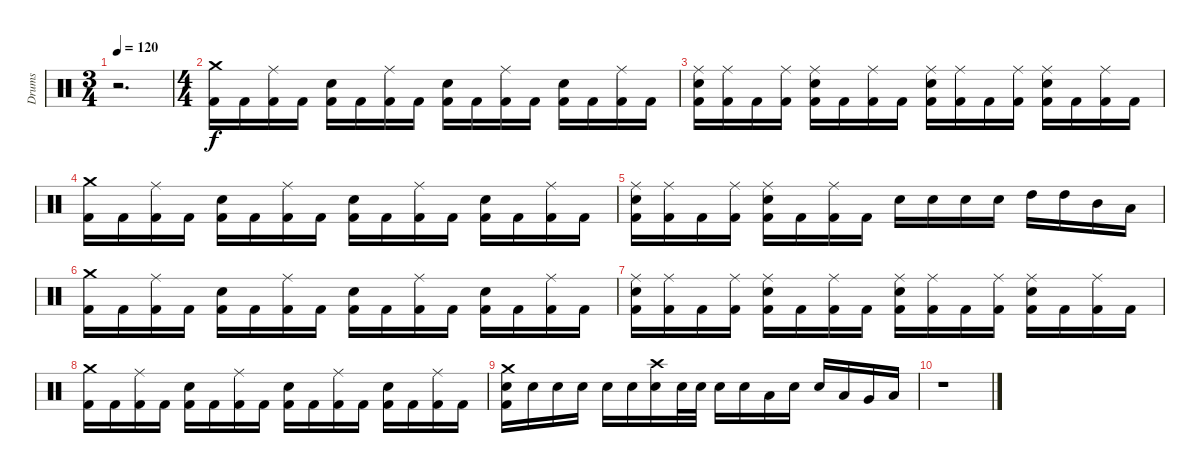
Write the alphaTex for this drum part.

\track ("Drums" "Drums") {instrument percussion}
\staff {score}
\articulation defaults
\ts (3 4)
\tempo 120
\clef neutral
\ks c
r.2{d dy f} |
\ts (4 4)
("Crash medium (hit)" "Kick (hit) 2").16 "Kick (hit) 2".16 ("Ride (middle)" "Kick (hit) 2").16 "Kick (hit) 2".16 ("Electric Snare (hit)" "Kick (hit) 2").16 "Kick (hit) 2".16 ("Ride (middle)" "Kick (hit) 2").16 "Kick (hit) 2".16 ("Electric Snare (hit)" "Kick (hit) 2").16 "Kick (hit) 2".16 ("Ride (middle)" "Kick (hit) 2").16 "Kick (hit) 2".16 ("Electric Snare (hit)" "Kick (hit) 2").16 "Kick (hit) 2".16 ("Ride (middle)" "Kick (hit) 2").16 "Kick (hit) 2".16 |
("Ride (middle)" "Electric Snare (hit)" "Kick (hit) 2").16 ("Ride (middle)" "Kick (hit) 2").16 "Kick (hit) 2".16 ("Ride (middle)" "Kick (hit) 2").16 ("Ride (middle)" "Electric Snare (hit)" "Kick (hit) 2").16 "Kick (hit) 2".16 ("Ride (middle)" "Kick (hit) 2").16 "Kick (hit) 2".16 ("Ride (middle)" "Electric Snare (hit)" "Kick (hit) 2").16 ("Ride (middle)" "Kick (hit) 2").16 "Kick (hit) 2".16 ("Ride (middle)" "Kick (hit) 2").16 ("Ride (middle)" "Electric Snare (hit)" "Kick (hit) 2").16 "Kick (hit) 2".16 ("Ride (middle)" "Kick (hit) 2").16 "Kick (hit) 2".16 |
("Crash medium (hit)" "Kick (hit) 2").16 "Kick (hit) 2".16 ("Ride (middle)" "Kick (hit) 2").16 "Kick (hit) 2".16 ("Electric Snare (hit)" "Kick (hit) 2").16 "Kick (hit) 2".16 ("Ride (middle)" "Kick (hit) 2").16 "Kick (hit) 2".16 ("Electric Snare (hit)" "Kick (hit) 2").16 "Kick (hit) 2".16 ("Ride (middle)" "Kick (hit) 2").16 "Kick (hit) 2".16 ("Electric Snare (hit)" "Kick (hit) 2").16 "Kick (hit) 2".16 ("Ride (middle)" "Kick (hit) 2").16 "Kick (hit) 2".16 |
("Ride (middle)" "Electric Snare (hit)" "Kick (hit) 2").16 ("Ride (middle)" "Kick (hit) 2").16 "Kick (hit) 2".16 ("Ride (middle)" "Kick (hit) 2").16 ("Ride (middle)" "Electric Snare (hit)" "Kick (hit) 2").16 "Kick (hit) 2".16 ("Ride (middle)" "Kick (hit) 2").16 "Kick (hit) 2".16 "Electric Snare (hit)".16 "Electric Snare (hit)".16 "Electric Snare (hit)".16 "Electric Snare (hit)".16 "High Tom (hit)".16 "High Tom (hit)".16 "Mid Tom (hit)".16 "Low Tom (hit)".16 |
("Crash medium (hit)" "Kick (hit) 2").16 "Kick (hit) 2".16 ("Ride (middle)" "Kick (hit) 2").16 "Kick (hit) 2".16 ("Electric Snare (hit)" "Kick (hit) 2").16 "Kick (hit) 2".16 ("Ride (middle)" "Kick (hit) 2").16 "Kick (hit) 2".16 ("Electric Snare (hit)" "Kick (hit) 2").16 "Kick (hit) 2".16 ("Ride (middle)" "Kick (hit) 2").16 "Kick (hit) 2".16 ("Electric Snare (hit)" "Kick (hit) 2").16 "Kick (hit) 2".16 ("Ride (middle)" "Kick (hit) 2").16 "Kick (hit) 2".16 |
("Ride (middle)" "Electric Snare (hit)" "Kick (hit) 2").16 ("Ride (middle)" "Kick (hit) 2").16 "Kick (hit) 2".16 ("Ride (middle)" "Kick (hit) 2").16 ("Ride (middle)" "Electric Snare (hit)" "Kick (hit) 2").16 "Kick (hit) 2".16 ("Ride (middle)" "Kick (hit) 2").16 "Kick (hit) 2".16 ("Ride (middle)" "Electric Snare (hit)" "Kick (hit) 2").16 ("Ride (middle)" "Kick (hit) 2").16 "Kick (hit) 2".16 ("Ride (middle)" "Kick (hit) 2").16 ("Ride (middle)" "Electric Snare (hit)" "Kick (hit) 2").16 "Kick (hit) 2".16 ("Ride (middle)" "Kick (hit) 2").16 "Kick (hit) 2".16 |
("Crash medium (hit)" "Kick (hit) 2").16 "Kick (hit) 2".16 ("Ride (middle)" "Kick (hit) 2").16 "Kick (hit) 2".16 ("Electric Snare (hit)" "Kick (hit) 2").16 "Kick (hit) 2".16 ("Ride (middle)" "Kick (hit) 2").16 "Kick (hit) 2".16 ("Electric Snare (hit)" "Kick (hit) 2").16 "Kick (hit) 2".16 ("Ride (middle)" "Kick (hit) 2").16 "Kick (hit) 2".16 ("Electric Snare (hit)" "Kick (hit) 2").16 "Kick (hit) 2".16 ("Ride (middle)" "Kick (hit) 2").16 "Kick (hit) 2".16 |
("Crash medium (hit)" "Electric Snare (hit)" "Kick (hit) 2").16 "Electric Snare (hit)".16 "Electric Snare (hit)".16 "Electric Snare (hit)".16 "Electric Snare (hit)".16 "Electric Snare (hit)".16 ("Crash high (hit)" "Electric Snare (hit)").16 "Electric Snare (hit)".32 "Electric Snare (hit)".32 "Electric Snare (hit)".16 "Electric Snare (hit)".16 "Low Tom (hit)".16 "Electric Snare (hit)".16 "Electric Snare (hit)".16 "Low Tom (hit)".16 "Very Low Tom (hit)".16 "Low Floor Tom (hit)".16 |
r.1
